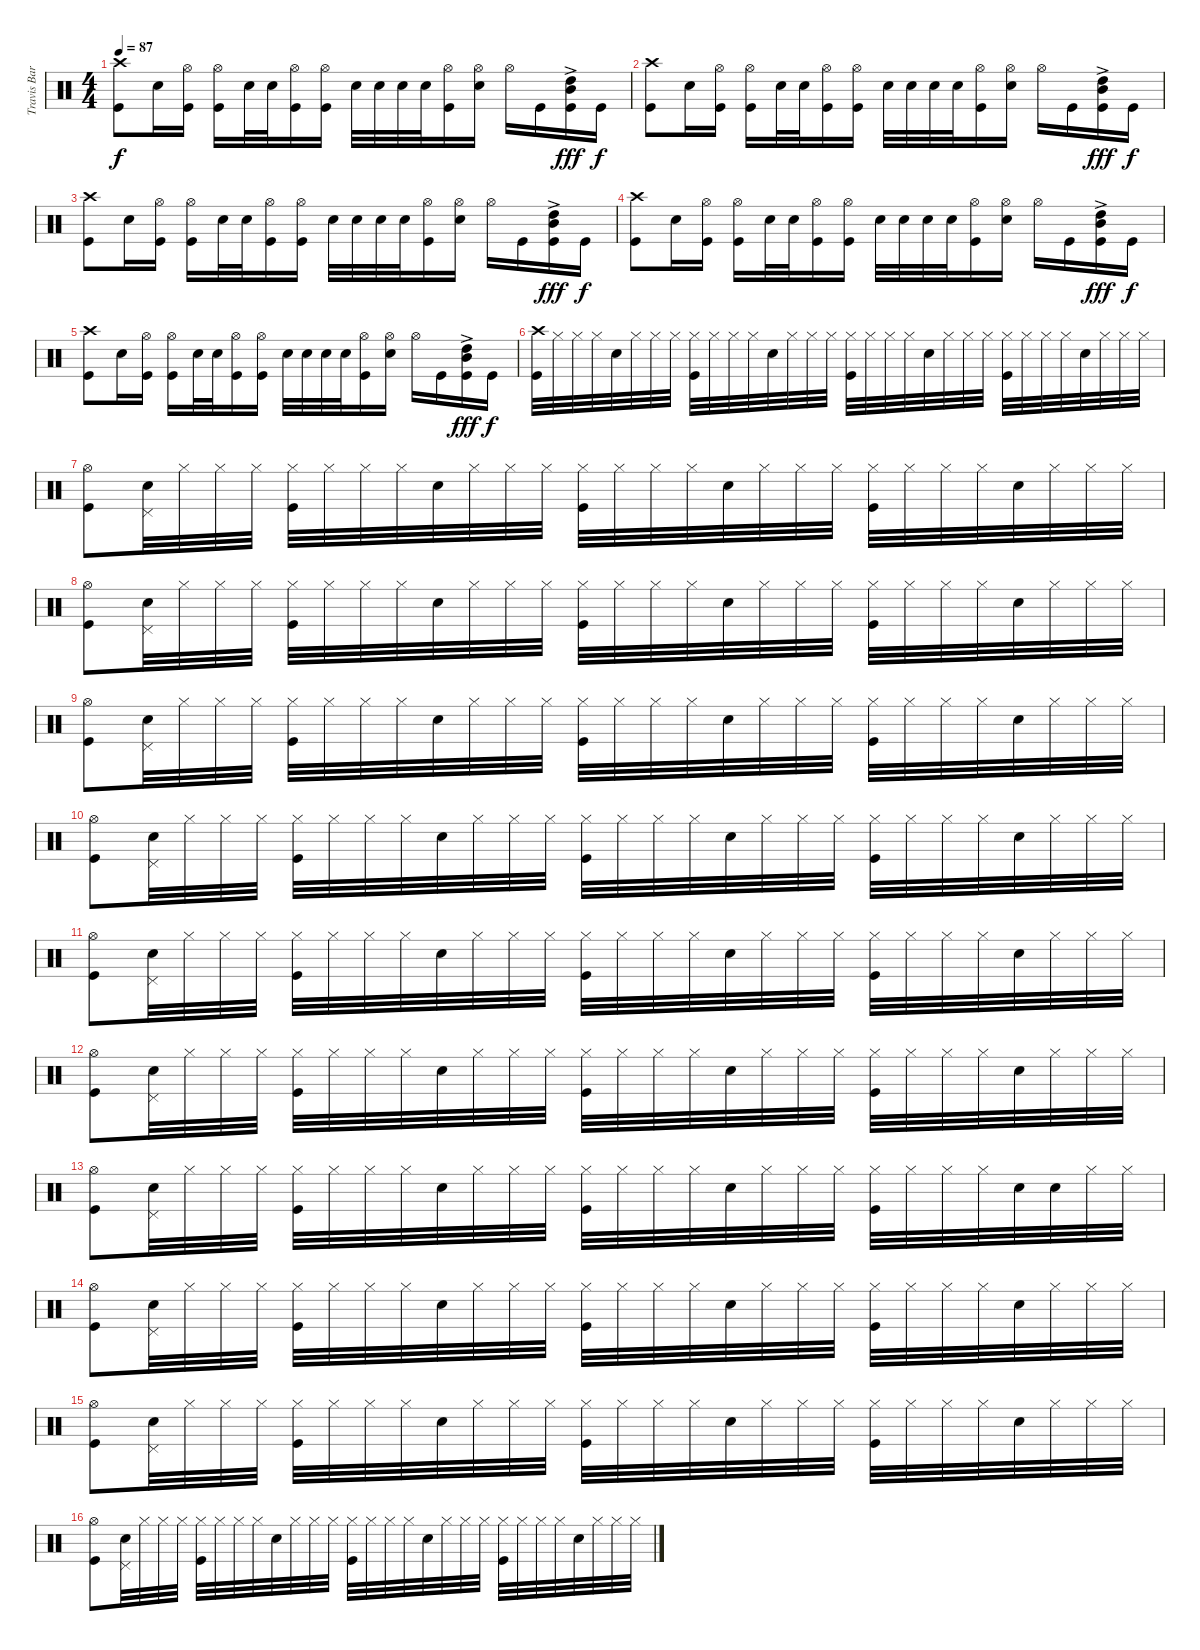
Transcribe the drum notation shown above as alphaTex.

\track ("Travis Barker" "Travis Bar") {instrument percussion}
\staff {score}
\articulation defaults
\ts (4 4)
\tempo 87
\clef neutral
\ks c
("Crash high (hit)" "Kick (hit)").8{dy f volume 16} "Electric Snare (hit)".16 ("Hi-Hat (open)" "Kick (hit)").16 ("Hi-Hat (open)" "Kick (hit)").16 "Electric Snare (hit)".32 "Electric Snare (hit)".32 ("Hi-Hat (open)" "Kick (hit)").16 ("Hi-Hat (open)" "Kick (hit)").16 "Electric Snare (hit)".32 "Electric Snare (hit)".32 "Electric Snare (hit)".32 "Electric Snare (hit)".32 ("Hi-Hat (open)" "Kick (hit)").16 ("Hi-Hat (open)" "Electric Snare (hit)").16 "Hi-Hat (open)".16 "Kick (hit)".16 ("High Tom (hit)"{ac} "Mid Tom (hit)"{ac} "Kick (hit)").16{dy fff} "Kick (hit)".16{dy f} |
("Crash high (hit)" "Kick (hit)").8 "Electric Snare (hit)".16 ("Hi-Hat (open)" "Kick (hit)").16 ("Hi-Hat (open)" "Kick (hit)").16 "Electric Snare (hit)".32 "Electric Snare (hit)".32 ("Hi-Hat (open)" "Kick (hit)").16 ("Hi-Hat (open)" "Kick (hit)").16 "Electric Snare (hit)".32 "Electric Snare (hit)".32 "Electric Snare (hit)".32 "Electric Snare (hit)".32 ("Hi-Hat (open)" "Kick (hit)").16 ("Hi-Hat (open)" "Electric Snare (hit)").16 "Hi-Hat (open)".16 "Kick (hit)".16 ("High Tom (hit)"{ac} "Mid Tom (hit)"{ac} "Kick (hit)").16{dy fff} "Kick (hit)".16{dy f} |
("Crash high (hit)" "Kick (hit)").8 "Electric Snare (hit)".16 ("Hi-Hat (open)" "Kick (hit)").16 ("Hi-Hat (open)" "Kick (hit)").16 "Electric Snare (hit)".32 "Electric Snare (hit)".32 ("Hi-Hat (open)" "Kick (hit)").16 ("Hi-Hat (open)" "Kick (hit)").16 "Electric Snare (hit)".32 "Electric Snare (hit)".32 "Electric Snare (hit)".32 "Electric Snare (hit)".32 ("Hi-Hat (open)" "Kick (hit)").16 ("Hi-Hat (open)" "Electric Snare (hit)").16 "Hi-Hat (open)".16 "Kick (hit)".16 ("High Tom (hit)"{ac} "Mid Tom (hit)"{ac} "Kick (hit)").16{dy fff} "Kick (hit)".16{dy f} |
("Crash high (hit)" "Kick (hit)").8 "Electric Snare (hit)".16 ("Hi-Hat (open)" "Kick (hit)").16 ("Hi-Hat (open)" "Kick (hit)").16 "Electric Snare (hit)".32 "Electric Snare (hit)".32 ("Hi-Hat (open)" "Kick (hit)").16 ("Hi-Hat (open)" "Kick (hit)").16 "Electric Snare (hit)".32 "Electric Snare (hit)".32 "Electric Snare (hit)".32 "Electric Snare (hit)".32 ("Hi-Hat (open)" "Kick (hit)").16 ("Hi-Hat (open)" "Electric Snare (hit)").16 "Hi-Hat (open)".16 "Kick (hit)".16 ("High Tom (hit)"{ac} "Mid Tom (hit)"{ac} "Kick (hit)").16{dy fff} "Kick (hit)".16{dy f} |
("Crash high (hit)" "Kick (hit)").8 "Electric Snare (hit)".16 ("Hi-Hat (open)" "Kick (hit)").16 ("Hi-Hat (open)" "Kick (hit)").16 "Electric Snare (hit)".32 "Electric Snare (hit)".32 ("Hi-Hat (open)" "Kick (hit)").16 ("Hi-Hat (open)" "Kick (hit)").16 "Electric Snare (hit)".32 "Electric Snare (hit)".32 "Electric Snare (hit)".32 "Electric Snare (hit)".32 ("Hi-Hat (open)" "Kick (hit)").16 ("Hi-Hat (open)" "Electric Snare (hit)").16 "Hi-Hat (open)".16 "Kick (hit)".16 ("High Tom (hit)"{ac} "Mid Tom (hit)"{ac} "Kick (hit)").16{dy fff} "Kick (hit)".16{dy f} |
("Crash high (hit)" "Kick (hit)").32 "Hi-Hat (closed)".32 "Hi-Hat (closed)".32 "Hi-Hat (closed)".32 "Electric Snare (hit)".32 "Hi-Hat (closed)".32 "Hi-Hat (closed)".32 "Hi-Hat (closed)".32 ("Hi-Hat (closed)" "Kick (hit)").32 "Hi-Hat (closed)".32 "Hi-Hat (closed)".32 "Hi-Hat (closed)".32 "Electric Snare (hit)".32 "Hi-Hat (closed)".32 "Hi-Hat (closed)".32 "Hi-Hat (closed)".32 ("Hi-Hat (closed)" "Kick (hit)").32 "Hi-Hat (closed)".32 "Hi-Hat (closed)".32 "Hi-Hat (closed)".32 "Electric Snare (hit)".32 "Hi-Hat (closed)".32 "Hi-Hat (closed)".32 "Hi-Hat (closed)".32 ("Hi-Hat (closed)" "Kick (hit)").32 "Hi-Hat (closed)".32 "Hi-Hat (closed)".32 "Hi-Hat (closed)".32 "Electric Snare (hit)".32 "Hi-Hat (closed)".32 "Hi-Hat (closed)".32 "Hi-Hat (closed)".32 |
("Hi-Hat (open)" "Kick (hit)").8 ("Electric Snare (hit)" "Pedal Hi-Hat (hit)").32 "Hi-Hat (closed)".32 "Hi-Hat (closed)".32 "Hi-Hat (closed)".32 ("Hi-Hat (closed)" "Kick (hit)").32 "Hi-Hat (closed)".32 "Hi-Hat (closed)".32 "Hi-Hat (closed)".32 "Electric Snare (hit)".32 "Hi-Hat (closed)".32 "Hi-Hat (closed)".32 "Hi-Hat (closed)".32 ("Hi-Hat (closed)" "Kick (hit)").32 "Hi-Hat (closed)".32 "Hi-Hat (closed)".32 "Hi-Hat (closed)".32 "Electric Snare (hit)".32 "Hi-Hat (closed)".32 "Hi-Hat (closed)".32 "Hi-Hat (closed)".32 ("Hi-Hat (closed)" "Kick (hit)").32 "Hi-Hat (closed)".32 "Hi-Hat (closed)".32 "Hi-Hat (closed)".32 "Electric Snare (hit)".32 "Hi-Hat (closed)".32 "Hi-Hat (closed)".32 "Hi-Hat (closed)".32 |
("Hi-Hat (open)" "Kick (hit)").8 ("Electric Snare (hit)" "Pedal Hi-Hat (hit)").32 "Hi-Hat (closed)".32 "Hi-Hat (closed)".32 "Hi-Hat (closed)".32 ("Hi-Hat (closed)" "Kick (hit)").32 "Hi-Hat (closed)".32 "Hi-Hat (closed)".32 "Hi-Hat (closed)".32 "Electric Snare (hit)".32 "Hi-Hat (closed)".32 "Hi-Hat (closed)".32 "Hi-Hat (closed)".32 ("Hi-Hat (closed)" "Kick (hit)").32 "Hi-Hat (closed)".32 "Hi-Hat (closed)".32 "Hi-Hat (closed)".32 "Electric Snare (hit)".32 "Hi-Hat (closed)".32 "Hi-Hat (closed)".32 "Hi-Hat (closed)".32 ("Hi-Hat (closed)" "Kick (hit)").32 "Hi-Hat (closed)".32 "Hi-Hat (closed)".32 "Hi-Hat (closed)".32 "Electric Snare (hit)".32 "Hi-Hat (closed)".32 "Hi-Hat (closed)".32 "Hi-Hat (closed)".32 |
("Hi-Hat (open)" "Kick (hit)").8 ("Electric Snare (hit)" "Pedal Hi-Hat (hit)").32 "Hi-Hat (closed)".32 "Hi-Hat (closed)".32 "Hi-Hat (closed)".32 ("Hi-Hat (closed)" "Kick (hit)").32 "Hi-Hat (closed)".32 "Hi-Hat (closed)".32 "Hi-Hat (closed)".32 "Electric Snare (hit)".32 "Hi-Hat (closed)".32 "Hi-Hat (closed)".32 "Hi-Hat (closed)".32 ("Hi-Hat (closed)" "Kick (hit)").32 "Hi-Hat (closed)".32 "Hi-Hat (closed)".32 "Hi-Hat (closed)".32 "Electric Snare (hit)".32 "Hi-Hat (closed)".32 "Hi-Hat (closed)".32 "Hi-Hat (closed)".32 ("Hi-Hat (closed)" "Kick (hit)").32 "Hi-Hat (closed)".32 "Hi-Hat (closed)".32 "Hi-Hat (closed)".32 "Electric Snare (hit)".32 "Hi-Hat (closed)".32 "Hi-Hat (closed)".32 "Hi-Hat (closed)".32 |
("Hi-Hat (open)" "Kick (hit)").8 ("Electric Snare (hit)" "Pedal Hi-Hat (hit)").32 "Hi-Hat (closed)".32 "Hi-Hat (closed)".32 "Hi-Hat (closed)".32 ("Hi-Hat (closed)" "Kick (hit)").32 "Hi-Hat (closed)".32 "Hi-Hat (closed)".32 "Hi-Hat (closed)".32 "Electric Snare (hit)".32 "Hi-Hat (closed)".32 "Hi-Hat (closed)".32 "Hi-Hat (closed)".32 ("Hi-Hat (closed)" "Kick (hit)").32 "Hi-Hat (closed)".32 "Hi-Hat (closed)".32 "Hi-Hat (closed)".32 "Electric Snare (hit)".32 "Hi-Hat (closed)".32 "Hi-Hat (closed)".32 "Hi-Hat (closed)".32 ("Hi-Hat (closed)" "Kick (hit)").32 "Hi-Hat (closed)".32 "Hi-Hat (closed)".32 "Hi-Hat (closed)".32 "Electric Snare (hit)".32 "Hi-Hat (closed)".32 "Hi-Hat (closed)".32 "Hi-Hat (closed)".32 |
("Hi-Hat (open)" "Kick (hit)").8 ("Electric Snare (hit)" "Pedal Hi-Hat (hit)").32 "Hi-Hat (closed)".32 "Hi-Hat (closed)".32 "Hi-Hat (closed)".32 ("Hi-Hat (closed)" "Kick (hit)").32 "Hi-Hat (closed)".32 "Hi-Hat (closed)".32 "Hi-Hat (closed)".32 "Electric Snare (hit)".32 "Hi-Hat (closed)".32 "Hi-Hat (closed)".32 "Hi-Hat (closed)".32 ("Hi-Hat (closed)" "Kick (hit)").32 "Hi-Hat (closed)".32 "Hi-Hat (closed)".32 "Hi-Hat (closed)".32 "Electric Snare (hit)".32 "Hi-Hat (closed)".32 "Hi-Hat (closed)".32 "Hi-Hat (closed)".32 ("Hi-Hat (closed)" "Kick (hit)").32 "Hi-Hat (closed)".32 "Hi-Hat (closed)".32 "Hi-Hat (closed)".32 "Electric Snare (hit)".32 "Hi-Hat (closed)".32 "Hi-Hat (closed)".32 "Hi-Hat (closed)".32 |
("Hi-Hat (open)" "Kick (hit)").8 ("Electric Snare (hit)" "Pedal Hi-Hat (hit)").32 "Hi-Hat (closed)".32 "Hi-Hat (closed)".32 "Hi-Hat (closed)".32 ("Hi-Hat (closed)" "Kick (hit)").32 "Hi-Hat (closed)".32 "Hi-Hat (closed)".32 "Hi-Hat (closed)".32 "Electric Snare (hit)".32 "Hi-Hat (closed)".32 "Hi-Hat (closed)".32 "Hi-Hat (closed)".32 ("Hi-Hat (closed)" "Kick (hit)").32 "Hi-Hat (closed)".32 "Hi-Hat (closed)".32 "Hi-Hat (closed)".32 "Electric Snare (hit)".32 "Hi-Hat (closed)".32 "Hi-Hat (closed)".32 "Hi-Hat (closed)".32 ("Hi-Hat (closed)" "Kick (hit)").32 "Hi-Hat (closed)".32 "Hi-Hat (closed)".32 "Hi-Hat (closed)".32 "Electric Snare (hit)".32 "Hi-Hat (closed)".32 "Hi-Hat (closed)".32 "Hi-Hat (closed)".32 |
("Hi-Hat (open)" "Kick (hit)").8 ("Electric Snare (hit)" "Pedal Hi-Hat (hit)").32 "Hi-Hat (closed)".32 "Hi-Hat (closed)".32 "Hi-Hat (closed)".32 ("Hi-Hat (closed)" "Kick (hit)").32 "Hi-Hat (closed)".32 "Hi-Hat (closed)".32 "Hi-Hat (closed)".32 "Electric Snare (hit)".32 "Hi-Hat (closed)".32 "Hi-Hat (closed)".32 "Hi-Hat (closed)".32 ("Hi-Hat (closed)" "Kick (hit)").32 "Hi-Hat (closed)".32 "Hi-Hat (closed)".32 "Hi-Hat (closed)".32 "Electric Snare (hit)".32 "Hi-Hat (closed)".32 "Hi-Hat (closed)".32 "Hi-Hat (closed)".32 ("Hi-Hat (closed)" "Kick (hit)").32 "Hi-Hat (closed)".32 "Hi-Hat (closed)".32 "Hi-Hat (closed)".32 "Electric Snare (hit)".32 "Electric Snare (hit)".32 "Hi-Hat (closed)".32 "Hi-Hat (closed)".32 |
("Hi-Hat (open)" "Kick (hit)").8 ("Electric Snare (hit)" "Pedal Hi-Hat (hit)").32 "Hi-Hat (closed)".32 "Hi-Hat (closed)".32 "Hi-Hat (closed)".32 ("Hi-Hat (closed)" "Kick (hit)").32 "Hi-Hat (closed)".32 "Hi-Hat (closed)".32 "Hi-Hat (closed)".32 "Electric Snare (hit)".32 "Hi-Hat (closed)".32 "Hi-Hat (closed)".32 "Hi-Hat (closed)".32 ("Hi-Hat (closed)" "Kick (hit)").32 "Hi-Hat (closed)".32 "Hi-Hat (closed)".32 "Hi-Hat (closed)".32 "Electric Snare (hit)".32 "Hi-Hat (closed)".32 "Hi-Hat (closed)".32 "Hi-Hat (closed)".32 ("Hi-Hat (closed)" "Kick (hit)").32 "Hi-Hat (closed)".32 "Hi-Hat (closed)".32 "Hi-Hat (closed)".32 "Electric Snare (hit)".32 "Hi-Hat (closed)".32 "Hi-Hat (closed)".32 "Hi-Hat (closed)".32 |
("Hi-Hat (open)" "Kick (hit)").8 ("Electric Snare (hit)" "Pedal Hi-Hat (hit)").32 "Hi-Hat (closed)".32 "Hi-Hat (closed)".32 "Hi-Hat (closed)".32 ("Hi-Hat (closed)" "Kick (hit)").32 "Hi-Hat (closed)".32 "Hi-Hat (closed)".32 "Hi-Hat (closed)".32 "Electric Snare (hit)".32 "Hi-Hat (closed)".32 "Hi-Hat (closed)".32 "Hi-Hat (closed)".32 ("Hi-Hat (closed)" "Kick (hit)").32 "Hi-Hat (closed)".32 "Hi-Hat (closed)".32 "Hi-Hat (closed)".32 "Electric Snare (hit)".32 "Hi-Hat (closed)".32 "Hi-Hat (closed)".32 "Hi-Hat (closed)".32 ("Hi-Hat (closed)" "Kick (hit)").32 "Hi-Hat (closed)".32 "Hi-Hat (closed)".32 "Hi-Hat (closed)".32 "Electric Snare (hit)".32 "Hi-Hat (closed)".32 "Hi-Hat (closed)".32 "Hi-Hat (closed)".32 |
("Hi-Hat (open)" "Kick (hit)").8 ("Electric Snare (hit)" "Pedal Hi-Hat (hit)").32 "Hi-Hat (closed)".32 "Hi-Hat (closed)".32 "Hi-Hat (closed)".32 ("Hi-Hat (closed)" "Kick (hit)").32 "Hi-Hat (closed)".32 "Hi-Hat (closed)".32 "Hi-Hat (closed)".32 "Electric Snare (hit)".32 "Hi-Hat (closed)".32 "Hi-Hat (closed)".32 "Hi-Hat (closed)".32 ("Hi-Hat (closed)" "Kick (hit)").32 "Hi-Hat (closed)".32 "Hi-Hat (closed)".32 "Hi-Hat (closed)".32 "Electric Snare (hit)".32 "Hi-Hat (closed)".32 "Hi-Hat (closed)".32 "Hi-Hat (closed)".32 ("Hi-Hat (closed)" "Kick (hit)").32 "Hi-Hat (closed)".32 "Hi-Hat (closed)".32 "Hi-Hat (closed)".32 "Electric Snare (hit)".32 "Hi-Hat (closed)".32 "Hi-Hat (closed)".32 "Hi-Hat (closed)".32
